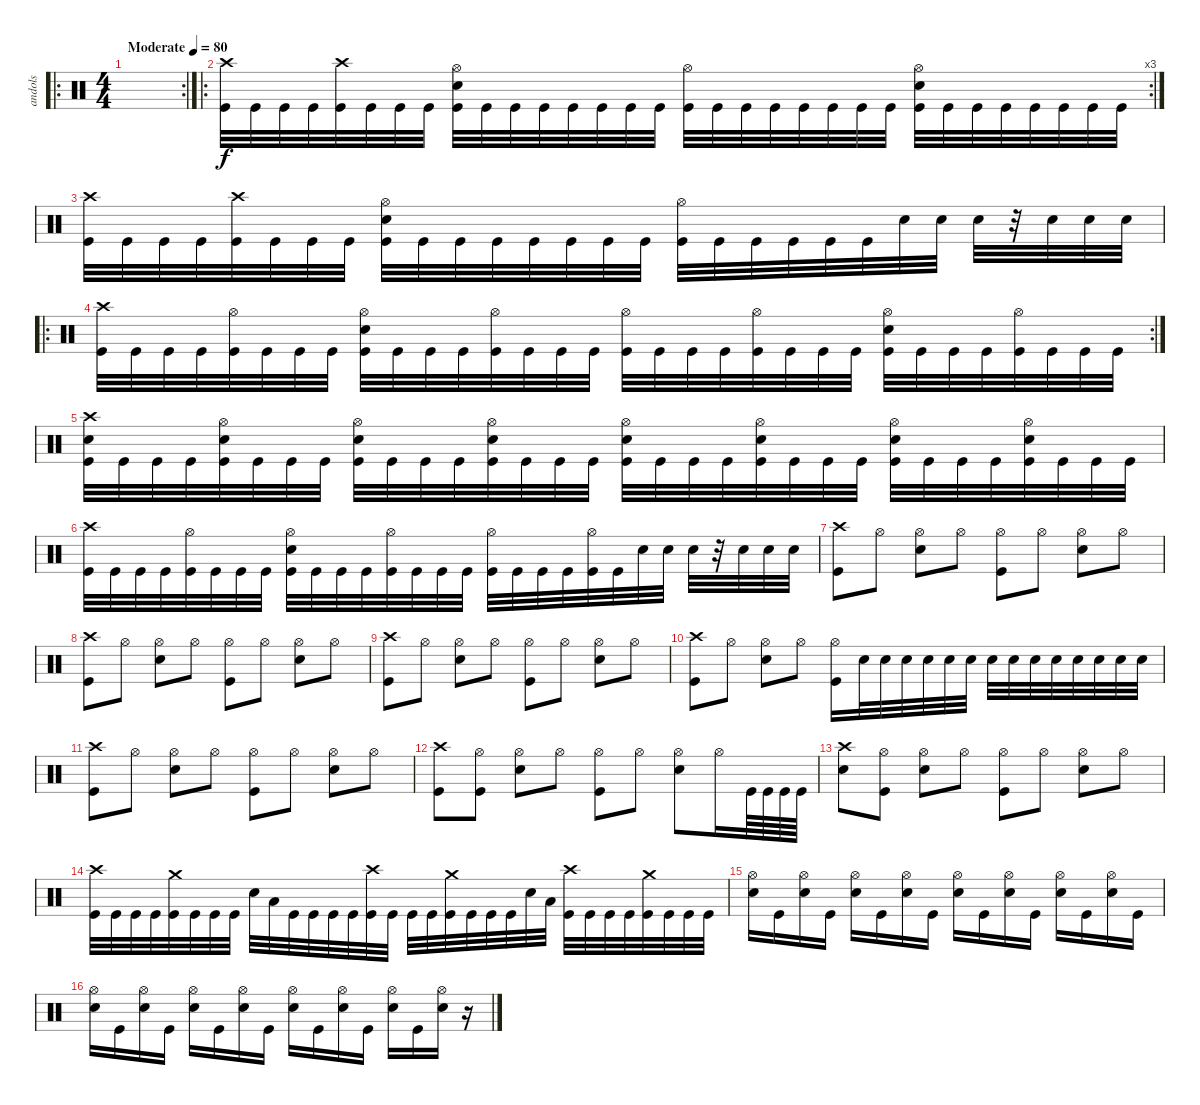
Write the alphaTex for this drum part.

\track ("andols" "andols") {instrument percussion}
\staff {score}
\articulation defaults
\ro
\rc 2
\ts (4 4)
\tempo (80 "Moderate")
\clef neutral
\ks c
|
\ro
\rc 3
("Crash high (hit)" "Kick (hit)").32 "Kick (hit)".32 "Kick (hit)".32 "Kick (hit)".32 ("Crash high (hit)" "Kick (hit)").32 "Kick (hit)".32 "Kick (hit)".32 "Kick (hit)".32 ("Electric Snare (hit)" "Hi-Hat (open)" "Kick (hit)").32 "Kick (hit)".32 "Kick (hit)".32 "Kick (hit)".32 "Kick (hit)".32 "Kick (hit)".32 "Kick (hit)".32 "Kick (hit)".32 ("Hi-Hat (open)" "Kick (hit)").32 "Kick (hit)".32 "Kick (hit)".32 "Kick (hit)".32 "Kick (hit)".32 "Kick (hit)".32 "Kick (hit)".32 "Kick (hit)".32 ("Electric Snare (hit)" "Hi-Hat (open)" "Kick (hit)").32 "Kick (hit)".32 "Kick (hit)".32 "Kick (hit)".32 "Kick (hit)".32 "Kick (hit)".32 "Kick (hit)".32 "Kick (hit)".32 |
("Crash high (hit)" "Kick (hit)").32 "Kick (hit)".32 "Kick (hit)".32 "Kick (hit)".32 ("Crash high (hit)" "Kick (hit)").32 "Kick (hit)".32 "Kick (hit)".32 "Kick (hit)".32 ("Electric Snare (hit)" "Hi-Hat (open)" "Kick (hit)").32 "Kick (hit)".32 "Kick (hit)".32 "Kick (hit)".32 "Kick (hit)".32 "Kick (hit)".32 "Kick (hit)".32 "Kick (hit)".32 ("Hi-Hat (open)" "Kick (hit)").32 "Kick (hit)".32 "Kick (hit)".32 "Kick (hit)".32 "Kick (hit)".32 "Kick (hit)".32 "Electric Snare (hit)".32 "Electric Snare (hit)".32 "Electric Snare (hit)".32 r.32 "Electric Snare (hit)".32 "Electric Snare (hit)".32 "Electric Snare (hit)".32 |
\ro
\rc 2
("Crash high (hit)" "Kick (hit)").32 "Kick (hit)".32 "Kick (hit)".32 "Kick (hit)".32 ("Hi-Hat (open)" "Kick (hit)").32 "Kick (hit)".32 "Kick (hit)".32 "Kick (hit)".32 ("Electric Snare (hit)" "Hi-Hat (open)" "Kick (hit)").32 "Kick (hit)".32 "Kick (hit)".32 "Kick (hit)".32 ("Hi-Hat (open)" "Kick (hit)").32 "Kick (hit)".32 "Kick (hit)".32 "Kick (hit)".32 ("Hi-Hat (open)" "Kick (hit)").32 "Kick (hit)".32 "Kick (hit)".32 "Kick (hit)".32 ("Hi-Hat (open)" "Kick (hit)").32 "Kick (hit)".32 "Kick (hit)".32 "Kick (hit)".32 ("Electric Snare (hit)" "Hi-Hat (open)" "Kick (hit)").32 "Kick (hit)".32 "Kick (hit)".32 "Kick (hit)".32 ("Hi-Hat (open)" "Kick (hit)").32 "Kick (hit)".32 "Kick (hit)".32 "Kick (hit)".32 |
("Electric Snare (hit)" "Crash high (hit)" "Kick (hit)").32 "Kick (hit)".32 "Kick (hit)".32 "Kick (hit)".32 ("Electric Snare (hit)" "Hi-Hat (open)" "Kick (hit)").32 "Kick (hit)".32 "Kick (hit)".32 "Kick (hit)".32 ("Electric Snare (hit)" "Hi-Hat (open)" "Kick (hit)").32 "Kick (hit)".32 "Kick (hit)".32 "Kick (hit)".32 ("Electric Snare (hit)" "Hi-Hat (open)" "Kick (hit)").32 "Kick (hit)".32 "Kick (hit)".32 "Kick (hit)".32 ("Electric Snare (hit)" "Hi-Hat (open)" "Kick (hit)").32 "Kick (hit)".32 "Kick (hit)".32 "Kick (hit)".32 ("Electric Snare (hit)" "Hi-Hat (open)" "Kick (hit)").32 "Kick (hit)".32 "Kick (hit)".32 "Kick (hit)".32 ("Electric Snare (hit)" "Hi-Hat (open)" "Kick (hit)").32 "Kick (hit)".32 "Kick (hit)".32 "Kick (hit)".32 ("Electric Snare (hit)" "Hi-Hat (open)" "Kick (hit)").32 "Kick (hit)".32 "Kick (hit)".32 "Kick (hit)".32 |
("Crash high (hit)" "Kick (hit)").32 "Kick (hit)".32 "Kick (hit)".32 "Kick (hit)".32 ("Hi-Hat (open)" "Kick (hit)").32 "Kick (hit)".32 "Kick (hit)".32 "Kick (hit)".32 ("Electric Snare (hit)" "Hi-Hat (open)" "Kick (hit)").32 "Kick (hit)".32 "Kick (hit)".32 "Kick (hit)".32 ("Hi-Hat (open)" "Kick (hit)").32 "Kick (hit)".32 "Kick (hit)".32 "Kick (hit)".32 ("Hi-Hat (open)" "Kick (hit)").32 "Kick (hit)".32 "Kick (hit)".32 "Kick (hit)".32 ("Hi-Hat (open)" "Kick (hit)").32 "Kick (hit)".32 "Electric Snare (hit)".32 "Electric Snare (hit)".32 "Electric Snare (hit)".32 r.32 "Electric Snare (hit)".32 "Electric Snare (hit)".32 "Electric Snare (hit)".32 |
("Crash high (hit)" "Kick (hit)").8 "Hi-Hat (open)".8 ("Hi-Hat (open)" "Electric Snare (hit)").8 "Hi-Hat (open)".8 ("Hi-Hat (open)" "Kick (hit)").8 "Hi-Hat (open)".8 ("Hi-Hat (open)" "Electric Snare (hit)").8 "Hi-Hat (open)".8 |
("Crash high (hit)" "Kick (hit)").8 "Hi-Hat (open)".8 ("Hi-Hat (open)" "Electric Snare (hit)").8 "Hi-Hat (open)".8 ("Hi-Hat (open)" "Kick (hit)").8 "Hi-Hat (open)".8 ("Hi-Hat (open)" "Electric Snare (hit)").8 "Hi-Hat (open)".8 |
("Crash high (hit)" "Kick (hit)").8 "Hi-Hat (open)".8 ("Hi-Hat (open)" "Electric Snare (hit)").8 "Hi-Hat (open)".8 ("Hi-Hat (open)" "Kick (hit)").8 "Hi-Hat (open)".8 ("Hi-Hat (open)" "Electric Snare (hit)").8 "Hi-Hat (open)".8 |
("Crash high (hit)" "Kick (hit)").8 "Hi-Hat (open)".8 ("Hi-Hat (open)" "Electric Snare (hit)").8 "Hi-Hat (open)".8 ("Hi-Hat (open)" "Kick (hit)").16 "Electric Snare (hit)".32 "Electric Snare (hit)".32 "Electric Snare (hit)".32 "Electric Snare (hit)".32 "Electric Snare (hit)".32 "Electric Snare (hit)".32 "Electric Snare (hit)".32 "Electric Snare (hit)".32 "Electric Snare (hit)".32 "Electric Snare (hit)".32 "Electric Snare (hit)".32 "Electric Snare (hit)".32 "Electric Snare (hit)".32 "Electric Snare (hit)".32 |
("Crash high (hit)" "Kick (hit)").8 "Hi-Hat (open)".8 ("Hi-Hat (open)" "Electric Snare (hit)").8 "Hi-Hat (open)".8 ("Hi-Hat (open)" "Kick (hit)").8 "Hi-Hat (open)".8 ("Hi-Hat (open)" "Electric Snare (hit)").8 "Hi-Hat (open)".8 |
("Crash high (hit)" "Kick (hit)").8 ("Hi-Hat (open)" "Kick (hit)").8 ("Hi-Hat (open)" "Electric Snare (hit)").8 "Hi-Hat (open)".8 ("Hi-Hat (open)" "Kick (hit)").8 "Hi-Hat (open)".8 ("Hi-Hat (open)" "Electric Snare (hit)").8 "Hi-Hat (open)".16 "Kick (hit)".64 "Kick (hit)".64 "Kick (hit)".64 "Kick (hit)".64 |
("Crash high (hit)" "Electric Snare (hit)").8 ("Hi-Hat (open)" "Kick (hit)").8 ("Hi-Hat (open)" "Electric Snare (hit)").8 "Hi-Hat (open)".8 ("Hi-Hat (open)" "Kick (hit)").8 "Hi-Hat (open)".8 ("Hi-Hat (open)" "Electric Snare (hit)").8 "Hi-Hat (open)".8 |
("Crash high (hit)" "Kick (hit)").32 "Kick (hit)".32 "Kick (hit)".32 "Kick (hit)".32 ("Crash medium (hit)" "Kick (hit)").32 "Kick (hit)".32 "Kick (hit)".32 "Kick (hit)".32 "Electric Snare (hit)".32 "Low Tom (hit)".32 "Kick (hit)".32 "Kick (hit)".32 "Kick (hit)".32 "Kick (hit)".32 ("Crash high (hit)" "Kick (hit)").32 "Kick (hit)".32 "Kick (hit)".32 "Kick (hit)".32 ("Crash medium (hit)" "Kick (hit)").32 "Kick (hit)".32 "Kick (hit)".32 "Kick (hit)".32 "Electric Snare (hit)".32 "Low Tom (hit)".32 ("Crash high (hit)" "Kick (hit)").32 "Kick (hit)".32 "Kick (hit)".32 "Kick (hit)".32 ("Crash medium (hit)" "Kick (hit)").32 "Kick (hit)".32 "Kick (hit)".32 "Kick (hit)".32 |
("Hi-Hat (open)" "Electric Snare (hit)").16 "Kick (hit)".16 ("Hi-Hat (open)" "Electric Snare (hit)").16 "Kick (hit)".16 ("Hi-Hat (open)" "Electric Snare (hit)").16 "Kick (hit)".16 ("Hi-Hat (open)" "Electric Snare (hit)").16 "Kick (hit)".16 ("Hi-Hat (open)" "Electric Snare (hit)").16 "Kick (hit)".16 ("Hi-Hat (open)" "Electric Snare (hit)").16 "Kick (hit)".16 ("Hi-Hat (open)" "Electric Snare (hit)").16 "Kick (hit)".16 ("Hi-Hat (open)" "Electric Snare (hit)").16 "Kick (hit)".16 |
("Hi-Hat (open)" "Electric Snare (hit)").16 "Kick (hit)".16 ("Hi-Hat (open)" "Electric Snare (hit)").16 "Kick (hit)".16 ("Hi-Hat (open)" "Electric Snare (hit)").16 "Kick (hit)".16 ("Hi-Hat (open)" "Electric Snare (hit)").16 "Kick (hit)".16 ("Hi-Hat (open)" "Electric Snare (hit)").16 "Kick (hit)".16 ("Hi-Hat (open)" "Electric Snare (hit)").16 "Kick (hit)".16 ("Hi-Hat (open)" "Electric Snare (hit)").16 "Kick (hit)".16 ("Hi-Hat (open)" "Electric Snare (hit)").16 r.16
